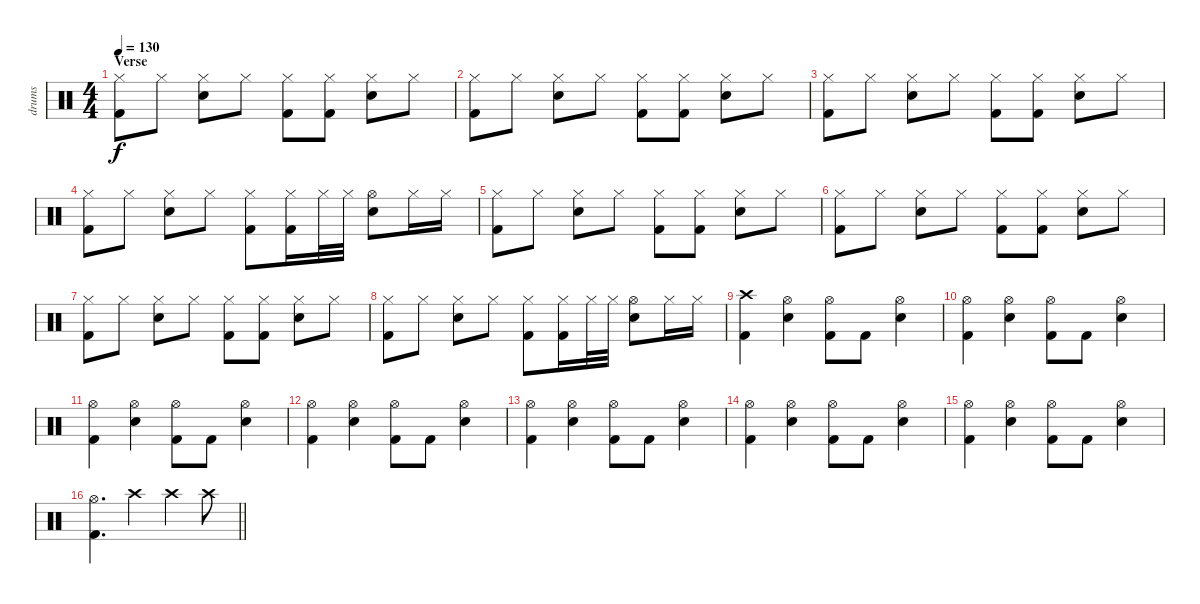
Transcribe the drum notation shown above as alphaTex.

\track ("drums" "drums") {instrument percussion}
\staff {score}
\articulation defaults
\ts (4 4)
\section ("" "Verse")
\tempo 130
\clef neutral
\ks c
("Hi-Hat (closed)" "Kick (hit) 2").8{dy f} "Hi-Hat (closed)".8 ("Hi-Hat (closed)" "Snare (hit) 2").8 "Hi-Hat (closed)".8 ("Hi-Hat (closed)" "Kick (hit) 2").8 ("Hi-Hat (closed)" "Kick (hit) 2").8 ("Hi-Hat (closed)" "Snare (hit) 2").8 "Hi-Hat (closed)".8 |
("Hi-Hat (closed)" "Kick (hit) 2").8 "Hi-Hat (closed)".8 ("Hi-Hat (closed)" "Snare (hit) 2").8 "Hi-Hat (closed)".8 ("Hi-Hat (closed)" "Kick (hit) 2").8 ("Hi-Hat (closed)" "Kick (hit) 2").8 ("Hi-Hat (closed)" "Snare (hit) 2").8 "Hi-Hat (closed)".8 |
("Hi-Hat (closed)" "Kick (hit) 2").8 "Hi-Hat (closed)".8 ("Hi-Hat (closed)" "Snare (hit) 2").8 "Hi-Hat (closed)".8 ("Hi-Hat (closed)" "Kick (hit) 2").8 ("Hi-Hat (closed)" "Kick (hit) 2").8 ("Hi-Hat (closed)" "Snare (hit) 2").8 "Hi-Hat (closed)".8 |
("Hi-Hat (closed)" "Kick (hit) 2").8 "Hi-Hat (closed)".8 ("Hi-Hat (closed)" "Snare (hit) 2").8 "Hi-Hat (closed)".8 ("Hi-Hat (closed)" "Kick (hit) 2").8 ("Hi-Hat (closed)" "Kick (hit) 2").16 "Hi-Hat (closed)".32 "Hi-Hat (closed)".32 ("Hi-Hat (open)" "Snare (hit) 2").8 "Hi-Hat (closed)".16 "Hi-Hat (closed)".16 |
("Hi-Hat (closed)" "Kick (hit) 2").8 "Hi-Hat (closed)".8 ("Hi-Hat (closed)" "Snare (hit) 2").8 "Hi-Hat (closed)".8 ("Hi-Hat (closed)" "Kick (hit) 2").8 ("Hi-Hat (closed)" "Kick (hit) 2").8 ("Hi-Hat (closed)" "Snare (hit) 2").8 "Hi-Hat (closed)".8 |
("Hi-Hat (closed)" "Kick (hit) 2").8 "Hi-Hat (closed)".8 ("Hi-Hat (closed)" "Snare (hit) 2").8 "Hi-Hat (closed)".8 ("Hi-Hat (closed)" "Kick (hit) 2").8 ("Hi-Hat (closed)" "Kick (hit) 2").8 ("Hi-Hat (closed)" "Snare (hit) 2").8 "Hi-Hat (closed)".8 |
("Hi-Hat (closed)" "Kick (hit) 2").8 "Hi-Hat (closed)".8 ("Hi-Hat (closed)" "Snare (hit) 2").8 "Hi-Hat (closed)".8 ("Hi-Hat (closed)" "Kick (hit) 2").8 ("Hi-Hat (closed)" "Kick (hit) 2").8 ("Hi-Hat (closed)" "Snare (hit) 2").8 "Hi-Hat (closed)".8 |
("Hi-Hat (closed)" "Kick (hit) 2").8 "Hi-Hat (closed)".8 ("Hi-Hat (closed)" "Snare (hit) 2").8 "Hi-Hat (closed)".8 ("Hi-Hat (closed)" "Kick (hit) 2").8 ("Hi-Hat (closed)" "Kick (hit) 2").16 "Hi-Hat (closed)".32 "Hi-Hat (closed)".32 ("Hi-Hat (open)" "Snare (hit) 2").8 "Hi-Hat (closed)".16 "Hi-Hat (closed)".16 |
("Crash high (hit)" "Kick (hit) 2").4 ("Hi-Hat (open)" "Snare (hit) 2").4 ("Hi-Hat (open)" "Kick (hit) 2").8 "Kick (hit) 2".8 ("Hi-Hat (open)" "Snare (hit) 2").4 |
("Hi-Hat (open)" "Kick (hit) 2").4 ("Hi-Hat (open)" "Snare (hit) 2").4 ("Hi-Hat (open)" "Kick (hit) 2").8 "Kick (hit) 2".8 ("Hi-Hat (open)" "Snare (hit) 2").4 |
("Hi-Hat (open)" "Kick (hit) 2").4 ("Hi-Hat (open)" "Snare (hit) 2").4 ("Hi-Hat (open)" "Kick (hit) 2").8 "Kick (hit) 2".8 ("Hi-Hat (open)" "Snare (hit) 2").4 |
("Hi-Hat (open)" "Kick (hit) 2").4 ("Hi-Hat (open)" "Snare (hit) 2").4 ("Hi-Hat (open)" "Kick (hit) 2").8 "Kick (hit) 2".8 ("Hi-Hat (open)" "Snare (hit) 2").4 |
("Hi-Hat (open)" "Kick (hit) 2").4 ("Hi-Hat (open)" "Snare (hit) 2").4 ("Hi-Hat (open)" "Kick (hit) 2").8 "Kick (hit) 2".8 ("Hi-Hat (open)" "Snare (hit) 2").4 |
("Hi-Hat (open)" "Kick (hit) 2").4 ("Hi-Hat (open)" "Snare (hit) 2").4 ("Hi-Hat (open)" "Kick (hit) 2").8 "Kick (hit) 2".8 ("Hi-Hat (open)" "Snare (hit) 2").4 |
("Hi-Hat (open)" "Kick (hit) 2").4 ("Hi-Hat (open)" "Snare (hit) 2").4 ("Hi-Hat (open)" "Kick (hit) 2").8 "Kick (hit) 2".8 ("Hi-Hat (open)" "Snare (hit) 2").4 |
\barLineRight lightlight
("Hi-Hat (open)" "Kick (hit) 2").4{d} "Crash high (hit)".4 "Crash high (hit)".4 "Crash high (hit)".8
